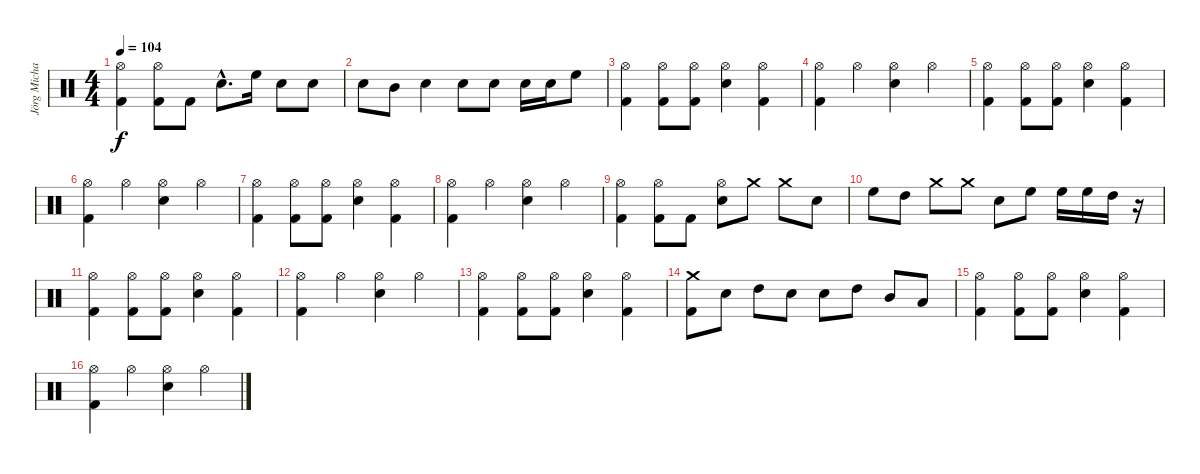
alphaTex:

\track ("Jörg Michael" "Jörg Micha") {instrument percussion}
\staff {score}
\articulation defaults
\ts (4 4)
\tempo 104
\clef neutral
\ks c
("Kick (hit) 2" "Hi-Hat (open)").4{dy f} ("Kick (hit) 2" "Hi-Hat (open)").8 "Kick (hit) 2".8 "Snare (hit) 2"{hac}.8{d} "High Floor Tom (hit)".16 "Snare (hit) 2".8 "Snare (hit) 2".8 |
"Snare (hit) 2".8 "Mid Tom (hit)".8 "Snare (hit) 2".4 "Snare (hit) 2".8 "Snare (hit) 2".8 "Snare (hit) 2".16 "Snare (hit) 2".16 "High Floor Tom (hit)".8 |
("Kick (hit) 2" "Hi-Hat (open)").4 ("Kick (hit) 2" "Hi-Hat (open)").8 ("Kick (hit) 2" "Hi-Hat (open)").8 ("Snare (hit) 2" "Hi-Hat (open)").4 ("Kick (hit) 2" "Hi-Hat (open)").4 |
("Kick (hit) 2" "Hi-Hat (open)").4 "Hi-Hat (open)".4 ("Snare (hit) 2" "Hi-Hat (open)").4 "Hi-Hat (open)".4 |
("Kick (hit) 2" "Hi-Hat (open)").4 ("Kick (hit) 2" "Hi-Hat (open)").8 ("Kick (hit) 2" "Hi-Hat (open)").8 ("Snare (hit) 2" "Hi-Hat (open)").4 ("Kick (hit) 2" "Hi-Hat (open)").4 |
("Kick (hit) 2" "Hi-Hat (open)").4 "Hi-Hat (open)".4 ("Snare (hit) 2" "Hi-Hat (open)").4 "Hi-Hat (open)".4 |
("Kick (hit) 2" "Hi-Hat (open)").4 ("Kick (hit) 2" "Hi-Hat (open)").8 ("Kick (hit) 2" "Hi-Hat (open)").8 ("Snare (hit) 2" "Hi-Hat (open)").4 ("Kick (hit) 2" "Hi-Hat (open)").4 |
("Kick (hit) 2" "Hi-Hat (open)").4 "Hi-Hat (open)".4 ("Snare (hit) 2" "Hi-Hat (open)").4 "Hi-Hat (open)".4 |
("Kick (hit) 2" "Hi-Hat (open)").4 ("Kick (hit) 2" "Hi-Hat (open)").8 "Kick (hit) 2".8 ("Snare (hit) 2" "Hi-Hat (open)").8 "Crash medium (hit)".8 "Crash medium (hit)".8 "Snare (hit) 2".8 |
"High Floor Tom (hit)".8 "High Tom (hit)".8 "Crash medium (hit)".8 "Crash medium (hit)".8 "Snare (hit) 2".8 "High Floor Tom (hit)".8 "High Floor Tom (hit)".16 "High Floor Tom (hit)".16 "High Tom (hit)".16 r.16 |
("Kick (hit) 2" "Hi-Hat (open)").4 ("Kick (hit) 2" "Hi-Hat (open)").8 ("Kick (hit) 2" "Hi-Hat (open)").8 ("Snare (hit) 2" "Hi-Hat (open)").4 ("Kick (hit) 2" "Hi-Hat (open)").4 |
("Kick (hit) 2" "Hi-Hat (open)").4 "Hi-Hat (open)".4 ("Snare (hit) 2" "Hi-Hat (open)").4 "Hi-Hat (open)".4 |
("Kick (hit) 2" "Hi-Hat (open)").4 ("Kick (hit) 2" "Hi-Hat (open)").8 ("Kick (hit) 2" "Hi-Hat (open)").8 ("Snare (hit) 2" "Hi-Hat (open)").4 ("Kick (hit) 2" "Hi-Hat (open)").4 |
("Kick (hit) 2" "Crash medium (hit)").8 "Snare (hit) 2".8 "High Tom (hit)".8 "Snare (hit) 2".8 "Snare (hit) 2".8 "High Tom (hit)".8 "Mid Tom (hit)".8 "Low Tom (hit)".8 |
("Kick (hit) 2" "Hi-Hat (open)").4 ("Kick (hit) 2" "Hi-Hat (open)").8 ("Kick (hit) 2" "Hi-Hat (open)").8 ("Snare (hit) 2" "Hi-Hat (open)").4 ("Kick (hit) 2" "Hi-Hat (open)").4 |
("Kick (hit) 2" "Hi-Hat (open)").4 "Hi-Hat (open)".4 ("Snare (hit) 2" "Hi-Hat (open)").4 "Hi-Hat (open)".4
